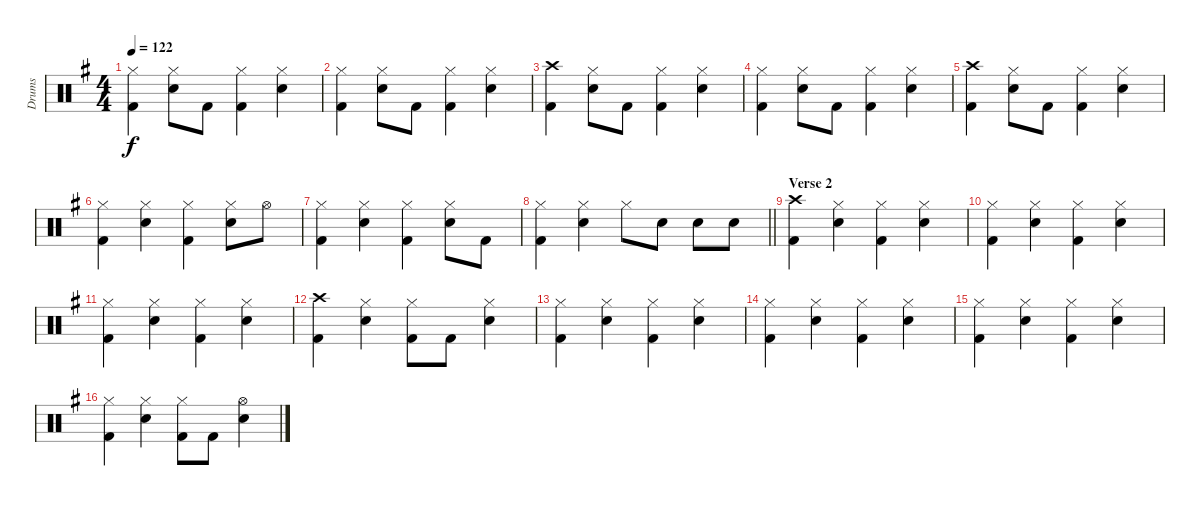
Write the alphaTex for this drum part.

\track ("Drums" "Drums") {instrument percussion}
\staff {score}
\articulation defaults
\ts (4 4)
\tempo 122
\clef neutral
\ks eminor
("Hi-Hat (closed)" "Kick (hit) 2").4{dy f} ("Hi-Hat (closed)" "Electric Snare (hit)").8 "Kick (hit) 2".8 ("Hi-Hat (closed)" "Kick (hit) 2").4 ("Hi-Hat (closed)" "Electric Snare (hit)").4 |
("Hi-Hat (closed)" "Kick (hit) 2").4 ("Hi-Hat (closed)" "Electric Snare (hit)").8 "Kick (hit) 2".8 ("Hi-Hat (closed)" "Kick (hit) 2").4 ("Hi-Hat (closed)" "Electric Snare (hit)").4 |
("Crash high (hit)" "Kick (hit) 2").4 ("Hi-Hat (closed)" "Electric Snare (hit)").8 "Kick (hit) 2".8 ("Hi-Hat (closed)" "Kick (hit) 2").4 ("Hi-Hat (closed)" "Electric Snare (hit)").4 |
("Hi-Hat (closed)" "Kick (hit) 2").4 ("Hi-Hat (closed)" "Electric Snare (hit)").8 "Kick (hit) 2".8 ("Hi-Hat (closed)" "Kick (hit) 2").4 ("Hi-Hat (closed)" "Electric Snare (hit)").4 |
("Crash high (hit)" "Kick (hit) 2").4 ("Hi-Hat (closed)" "Electric Snare (hit)").8 "Kick (hit) 2".8 ("Hi-Hat (closed)" "Kick (hit) 2").4 ("Hi-Hat (closed)" "Electric Snare (hit)").4 |
("Hi-Hat (closed)" "Kick (hit) 2").4 ("Hi-Hat (closed)" "Electric Snare (hit)").4 ("Hi-Hat (closed)" "Kick (hit) 2").4 ("Hi-Hat (closed)" "Electric Snare (hit)").8 "Hi-Hat (open)".8 |
("Hi-Hat (closed)" "Kick (hit) 2").4 ("Hi-Hat (closed)" "Electric Snare (hit)").4 ("Hi-Hat (closed)" "Kick (hit) 2").4 ("Hi-Hat (closed)" "Electric Snare (hit)").8 "Kick (hit) 2".8 |
\barLineRight lightlight
("Hi-Hat (closed)" "Kick (hit) 2").4 ("Hi-Hat (closed)" "Electric Snare (hit)").4 "Hi-Hat (closed)".8 "Electric Snare (hit)".8 "Electric Snare (hit)".8 "Electric Snare (hit)".8 |
\section ("" "Verse 2")
("Crash high (hit)" "Kick (hit) 2").4 ("Hi-Hat (closed)" "Electric Snare (hit)").4 ("Hi-Hat (closed)" "Kick (hit) 2").4 ("Hi-Hat (closed)" "Electric Snare (hit)").4 |
("Hi-Hat (closed)" "Kick (hit) 2").4 ("Hi-Hat (closed)" "Electric Snare (hit)").4 ("Hi-Hat (closed)" "Kick (hit) 2").4 ("Hi-Hat (closed)" "Electric Snare (hit)").4 |
("Hi-Hat (closed)" "Kick (hit) 2").4 ("Hi-Hat (closed)" "Electric Snare (hit)").4 ("Hi-Hat (closed)" "Kick (hit) 2").4 ("Hi-Hat (closed)" "Electric Snare (hit)").4 |
("Crash high (hit)" "Kick (hit) 2").4 ("Hi-Hat (closed)" "Electric Snare (hit)").4 ("Hi-Hat (closed)" "Kick (hit) 2").8 "Kick (hit) 2".8 ("Hi-Hat (closed)" "Electric Snare (hit)").4 |
("Hi-Hat (closed)" "Kick (hit) 2").4 ("Hi-Hat (closed)" "Electric Snare (hit)").4 ("Hi-Hat (closed)" "Kick (hit) 2").4 ("Hi-Hat (closed)" "Electric Snare (hit)").4 |
("Hi-Hat (closed)" "Kick (hit) 2").4 ("Hi-Hat (closed)" "Electric Snare (hit)").4 ("Hi-Hat (closed)" "Kick (hit) 2").4 ("Hi-Hat (closed)" "Electric Snare (hit)").4 |
("Hi-Hat (closed)" "Kick (hit) 2").4 ("Hi-Hat (closed)" "Electric Snare (hit)").4 ("Hi-Hat (closed)" "Kick (hit) 2").4 ("Hi-Hat (closed)" "Electric Snare (hit)").4 |
("Hi-Hat (closed)" "Kick (hit) 2").4 ("Hi-Hat (closed)" "Electric Snare (hit)").4 ("Hi-Hat (closed)" "Kick (hit) 2").8 "Kick (hit) 2".8 ("Hi-Hat (open)" "Electric Snare (hit)").4
